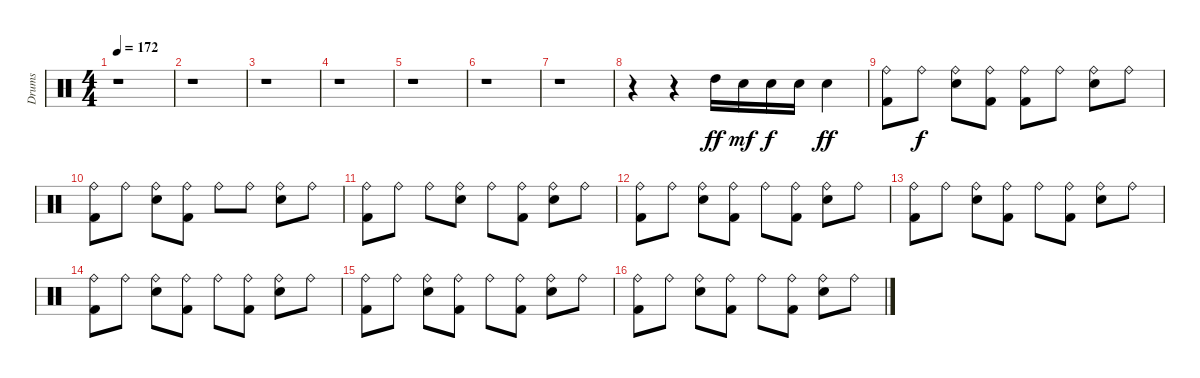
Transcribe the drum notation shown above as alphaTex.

\track ("Drums" "Drums") {instrument percussion}
\staff {score}
\articulation defaults
\ts (4 4)
\tempo 172
\clef neutral
\ks c
r.1{dy ff} |
r.1 |
r.1 |
r.1 |
r.1 |
r.1 |
r.1 |
r.4 r.4 "High Tom (hit)".16 "Electric Snare (hit)".16{dy mf} "Electric Snare (hit)".16{dy f} "Electric Snare (hit)".16 "Electric Snare (hit)".4{dy ff} |
("Ride (bell)" "Kick (hit) 2").8 "Ride (bell)".8{dy f} ("Ride (bell)" "Electric Snare (hit)").8 ("Ride (bell)" "Kick (hit) 2").8 ("Ride (bell)" "Kick (hit) 2").8 "Ride (bell)".8 ("Ride (bell)" "Electric Snare (hit)").8 "Ride (bell)".8 |
("Ride (bell)" "Kick (hit) 2").8 "Ride (bell)".8 ("Ride (bell)" "Electric Snare (hit)").8 ("Ride (bell)" "Kick (hit) 2").8 "Ride (bell)".8 "Ride (bell)".8 ("Ride (bell)" "Electric Snare (hit)").8 "Ride (bell)".8 |
("Ride (bell)" "Kick (hit) 2").8 "Ride (bell)".8 "Ride (bell)".8 ("Ride (bell)" "Electric Snare (hit)").8 "Ride (bell)".8 ("Ride (bell)" "Kick (hit) 2").8 ("Ride (bell)" "Electric Snare (hit)").8 "Ride (bell)".8 |
("Ride (bell)" "Kick (hit) 2").8 "Ride (bell)".8 ("Ride (bell)" "Electric Snare (hit)").8 ("Ride (bell)" "Kick (hit) 2").8 "Ride (bell)".8 ("Ride (bell)" "Kick (hit) 2").8 ("Ride (bell)" "Electric Snare (hit)").8 "Ride (bell)".8 |
("Ride (bell)" "Kick (hit) 2").8 "Ride (bell)".8 ("Ride (bell)" "Electric Snare (hit)").8 ("Ride (bell)" "Kick (hit) 2").8 "Ride (bell)".8 ("Ride (bell)" "Kick (hit) 2").8 ("Ride (bell)" "Electric Snare (hit)").8 "Ride (bell)".8 |
("Ride (bell)" "Kick (hit) 2").8 "Ride (bell)".8 ("Ride (bell)" "Electric Snare (hit)").8 ("Ride (bell)" "Kick (hit) 2").8 "Ride (bell)".8 ("Ride (bell)" "Kick (hit) 2").8 ("Ride (bell)" "Electric Snare (hit)").8 "Ride (bell)".8 |
("Ride (bell)" "Kick (hit) 2").8 "Ride (bell)".8 ("Ride (bell)" "Electric Snare (hit)").8 ("Ride (bell)" "Kick (hit) 2").8 "Ride (bell)".8 ("Ride (bell)" "Kick (hit) 2").8 ("Ride (bell)" "Electric Snare (hit)").8 "Ride (bell)".8 |
("Ride (bell)" "Kick (hit) 2").8 "Ride (bell)".8 ("Ride (bell)" "Electric Snare (hit)").8 ("Ride (bell)" "Kick (hit) 2").8 "Ride (bell)".8 ("Ride (bell)" "Kick (hit) 2").8 ("Ride (bell)" "Electric Snare (hit)").8 "Ride (bell)".8
